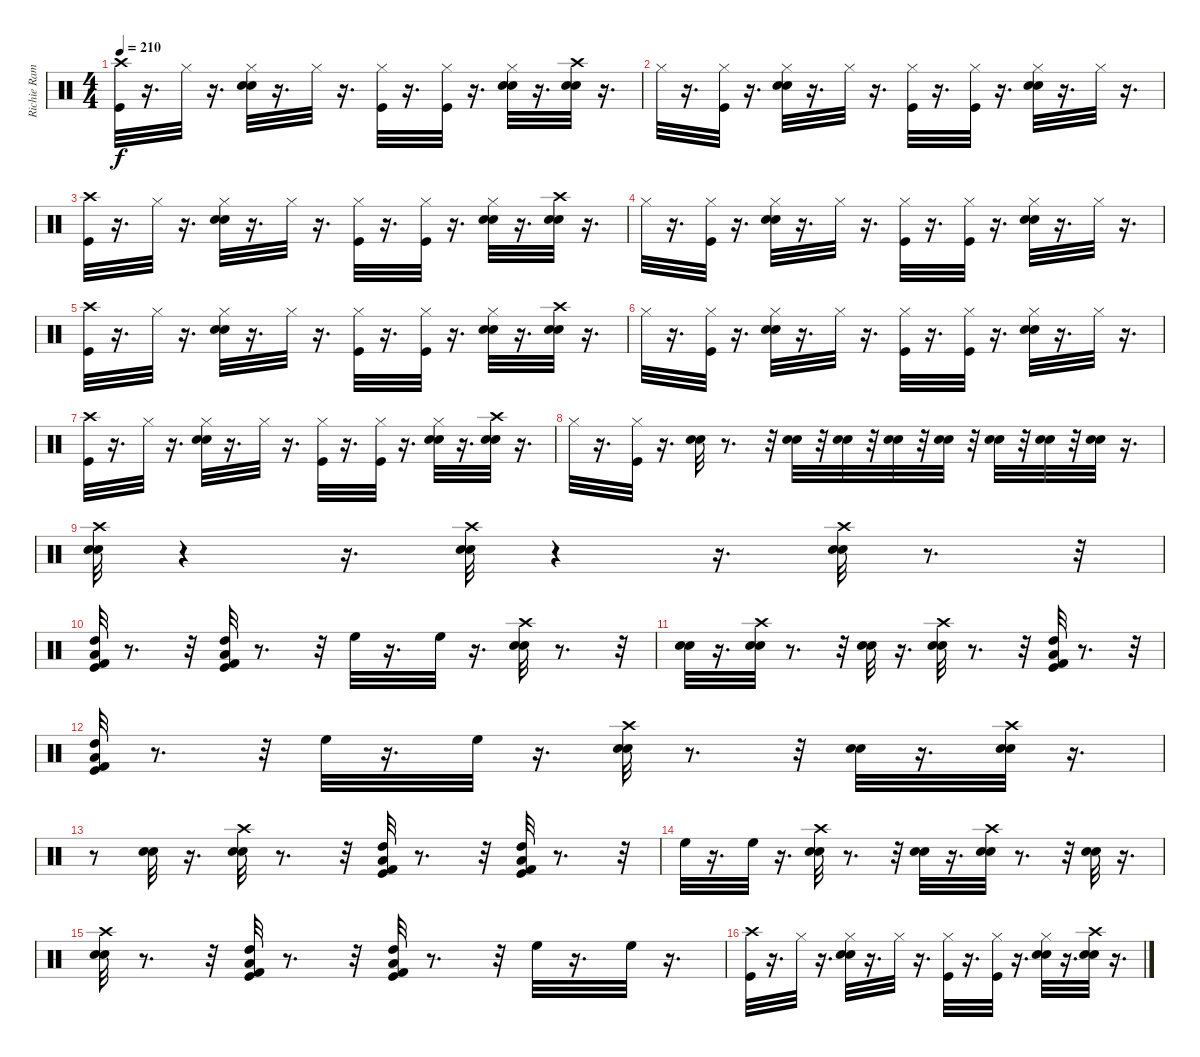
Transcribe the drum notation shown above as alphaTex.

\track ("Richie Ramone" "Richie Ram") {instrument percussion}
\staff {score}
\articulation defaults
\ts (4 4)
\tempo 210
\clef neutral
\ks c
("Crash high (hit)" "Kick (hit)").32{dy f} r.16{d} "Hi-Hat (closed)".32 r.16{d} ("Hand Clap (hit)" "Hi-Hat (closed)" "Electric Snare (hit)").32 r.16{d} "Hi-Hat (closed)".32 r.16{d} ("Hi-Hat (closed)" "Kick (hit)").32 r.16{d} ("Hi-Hat (closed)" "Kick (hit)").32 r.16{d} ("Hand Clap (hit)" "Hi-Hat (closed)" "Electric Snare (hit)").32 r.16{d} ("Hand Clap (hit)" "Crash high (hit)" "Electric Snare (hit)").32 r.16{d} |
"Hi-Hat (closed)".32 r.16{d} ("Hi-Hat (closed)" "Kick (hit)").32 r.16{d} ("Hand Clap (hit)" "Hi-Hat (closed)" "Electric Snare (hit)").32 r.16{d} "Hi-Hat (closed)".32 r.16{d} ("Hi-Hat (closed)" "Kick (hit)").32 r.16{d} ("Hi-Hat (closed)" "Kick (hit)").32 r.16{d} ("Hand Clap (hit)" "Hi-Hat (closed)" "Electric Snare (hit)").32 r.16{d} "Hi-Hat (closed)".32 r.16{d} |
("Crash high (hit)" "Kick (hit)").32 r.16{d} "Hi-Hat (closed)".32 r.16{d} ("Hand Clap (hit)" "Hi-Hat (closed)" "Electric Snare (hit)").32 r.16{d} "Hi-Hat (closed)".32 r.16{d} ("Hi-Hat (closed)" "Kick (hit)").32 r.16{d} ("Hi-Hat (closed)" "Kick (hit)").32 r.16{d} ("Hand Clap (hit)" "Hi-Hat (closed)" "Electric Snare (hit)").32 r.16{d} ("Hand Clap (hit)" "Crash high (hit)" "Electric Snare (hit)").32 r.16{d} |
"Hi-Hat (closed)".32 r.16{d} ("Hi-Hat (closed)" "Kick (hit)").32 r.16{d} ("Hand Clap (hit)" "Hi-Hat (closed)" "Electric Snare (hit)").32 r.16{d} "Hi-Hat (closed)".32 r.16{d} ("Hi-Hat (closed)" "Kick (hit)").32 r.16{d} ("Hi-Hat (closed)" "Kick (hit)").32 r.16{d} ("Hand Clap (hit)" "Hi-Hat (closed)" "Electric Snare (hit)").32 r.16{d} "Hi-Hat (closed)".32 r.16{d} |
("Crash high (hit)" "Kick (hit)").32 r.16{d} "Hi-Hat (closed)".32 r.16{d} ("Hand Clap (hit)" "Hi-Hat (closed)" "Electric Snare (hit)").32 r.16{d} "Hi-Hat (closed)".32 r.16{d} ("Hi-Hat (closed)" "Kick (hit)").32 r.16{d} ("Hi-Hat (closed)" "Kick (hit)").32 r.16{d} ("Hand Clap (hit)" "Hi-Hat (closed)" "Electric Snare (hit)").32 r.16{d} ("Hand Clap (hit)" "Crash high (hit)" "Electric Snare (hit)").32 r.16{d} |
"Hi-Hat (closed)".32 r.16{d} ("Hi-Hat (closed)" "Kick (hit)").32 r.16{d} ("Hand Clap (hit)" "Hi-Hat (closed)" "Electric Snare (hit)").32 r.16{d} "Hi-Hat (closed)".32 r.16{d} ("Hi-Hat (closed)" "Kick (hit)").32 r.16{d} ("Hi-Hat (closed)" "Kick (hit)").32 r.16{d} ("Hand Clap (hit)" "Hi-Hat (closed)" "Electric Snare (hit)").32 r.16{d} "Hi-Hat (closed)".32 r.16{d} |
("Crash high (hit)" "Kick (hit)").32 r.16{d} "Hi-Hat (closed)".32 r.16{d} ("Hand Clap (hit)" "Hi-Hat (closed)" "Electric Snare (hit)").32 r.16{d} "Hi-Hat (closed)".32 r.16{d} ("Hi-Hat (closed)" "Kick (hit)").32 r.16{d} ("Hi-Hat (closed)" "Kick (hit)").32 r.16{d} ("Hand Clap (hit)" "Hi-Hat (closed)" "Electric Snare (hit)").32 r.16{d} ("Hand Clap (hit)" "Crash high (hit)" "Electric Snare (hit)").32 r.16{d} |
"Hi-Hat (closed)".32 r.16{d} ("Hi-Hat (closed)" "Kick (hit)").32 r.16{d} ("Electric Snare (hit)" "Hand Clap (hit)").32 r.8{d} r.32 ("Hand Clap (hit)" "Electric Snare (hit)").32 r.32 ("Hand Clap (hit)" "Electric Snare (hit)").32 r.32 ("Electric Snare (hit)" "Hand Clap (hit)").32 r.32 ("Electric Snare (hit)" "Hand Clap (hit)").32 r.32 ("Electric Snare (hit)" "Hand Clap (hit)").32 r.32 ("Electric Snare (hit)" "Hand Clap (hit)").32 r.32 ("Electric Snare (hit)" "Hand Clap (hit)").32 r.16{d} |
("Crash high (hit)" "Hand Clap (hit)" "Electric Snare (hit)").32 r.4 r.16{d} ("Hand Clap (hit)" "Electric Snare (hit)" "Crash high (hit)").32 r.4 r.16{d} ("Hand Clap (hit)" "Electric Snare (hit)" "Crash high (hit)").32 r.8{d} r.32 |
("High Tom (hit)" "Kick (hit) 2" "Kick (hit)" "Low Tom (hit)").32 r.8{d} r.32 ("High Tom (hit)" "Kick (hit) 2" "Kick (hit)" "Low Tom (hit)").32 r.8{d} r.32 "High Floor Tom (hit)".32 r.16{d} "High Floor Tom (hit)".32 r.16{d} ("Hand Clap (hit)" "Electric Snare (hit)" "Crash high (hit)").32 r.8{d} r.32 |
("Hand Clap (hit)" "Electric Snare (hit)").32 r.16{d} ("Hand Clap (hit)" "Electric Snare (hit)" "Crash high (hit)").32 r.8{d} r.32 ("Electric Snare (hit)" "Hand Clap (hit)").32 r.16{d} ("Crash high (hit)" "Electric Snare (hit)" "Hand Clap (hit)").32 r.8{d} r.32 ("High Tom (hit)" "Kick (hit) 2" "Kick (hit)" "Low Tom (hit)").32 r.8{d} r.32 |
("High Tom (hit)" "Kick (hit) 2" "Kick (hit)" "Low Tom (hit)").32 r.8{d} r.32 "High Floor Tom (hit)".32 r.16{d} "High Floor Tom (hit)".32 r.16{d} ("Hand Clap (hit)" "Electric Snare (hit)" "Crash high (hit)").32 r.8{d} r.32 ("Hand Clap (hit)" "Electric Snare (hit)").32 r.16{d} ("Hand Clap (hit)" "Electric Snare (hit)" "Crash high (hit)").32 r.16{d} |
r.8 ("Electric Snare (hit)" "Hand Clap (hit)").32 r.16{d} ("Crash high (hit)" "Electric Snare (hit)" "Hand Clap (hit)").32 r.8{d} r.32 ("High Tom (hit)" "Kick (hit) 2" "Kick (hit)" "Low Tom (hit)").32 r.8{d} r.32 ("High Tom (hit)" "Kick (hit) 2" "Kick (hit)" "Low Tom (hit)").32 r.8{d} r.32 |
"High Floor Tom (hit)".32 r.16{d} "High Floor Tom (hit)".32 r.16{d} ("Hand Clap (hit)" "Electric Snare (hit)" "Crash high (hit)").32 r.8{d} r.32 ("Hand Clap (hit)" "Electric Snare (hit)").32 r.16{d} ("Hand Clap (hit)" "Electric Snare (hit)" "Crash high (hit)").32 r.8{d} r.32 ("Electric Snare (hit)" "Hand Clap (hit)").32 r.16{d} |
("Crash high (hit)" "Electric Snare (hit)" "Hand Clap (hit)").32 r.8{d} r.32 ("High Tom (hit)" "Kick (hit) 2" "Kick (hit)" "Low Tom (hit)").32 r.8{d} r.32 ("High Tom (hit)" "Kick (hit) 2" "Kick (hit)" "Low Tom (hit)").32 r.8{d} r.32 "High Floor Tom (hit)".32 r.16{d} "High Floor Tom (hit)".32 r.16{d} |
("Crash high (hit)" "Kick (hit)").32 r.16{d} "Hi-Hat (closed)".32 r.16{d} ("Hand Clap (hit)" "Hi-Hat (closed)" "Electric Snare (hit)").32 r.16{d} "Hi-Hat (closed)".32 r.16{d} ("Hi-Hat (closed)" "Kick (hit)").32 r.16{d} ("Hi-Hat (closed)" "Kick (hit)").32 r.16{d} ("Hand Clap (hit)" "Hi-Hat (closed)" "Electric Snare (hit)").32 r.16{d} ("Hand Clap (hit)" "Crash high (hit)" "Electric Snare (hit)").32 r.16{d}
